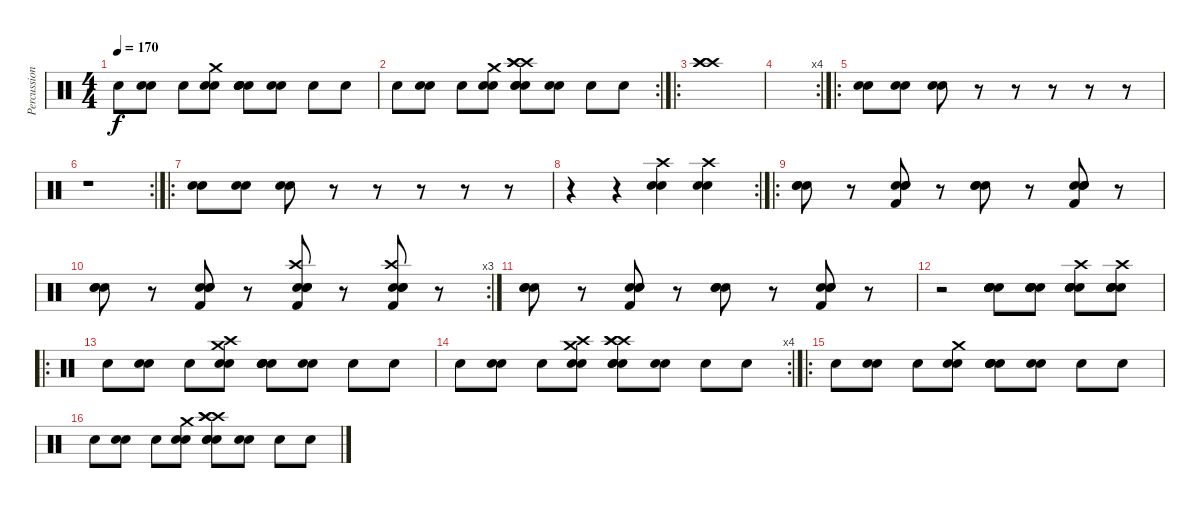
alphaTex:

\track ("Percussions" "Percussion") {instrument percussion}
\staff {score}
\articulation defaults
\ts (4 4)
\tempo 170
\clef neutral
\ks c "Snare (hit) 2".8{dy f}
("Electric Snare (hit)" "Snare (hit) 2").8 "Snare (hit) 2".8 ("Electric Snare (hit)" "Snare (hit) 2" "Crash medium (hit)").8 ("Electric Snare (hit)" "Electric Snare (hit)" "Electric Snare (hit)" "Snare (hit) 2").8 ("Electric Snare (hit)" "Snare (hit) 2").8 "Snare (hit) 2".8 "Snare (hit) 2".8 |
\rc 2 "Snare (hit) 2".8
("Electric Snare (hit)" "Snare (hit) 2").8 "Snare (hit) 2".8 ("Electric Snare (hit)" "Snare (hit) 2" "Crash medium (hit)").8 ("Electric Snare (hit)" "Electric Snare (hit)" "Crash high (hit)" "Snare (hit) 2" "Crash high (hit)" "Crash high (hit)").8 ("Electric Snare (hit)" "Snare (hit) 2").8 "Snare (hit) 2".8 "Snare (hit) 2".8 |
\ro
("Crash high (hit)" "Crash high (hit)" "Crash high (hit)").1 |
\rc 4
|
\ro
("Snare (hit) 2" "Electric Snare (hit)").8 ("Snare (hit) 2" "Electric Snare (hit)").8 ("Snare (hit) 2" "Electric Snare (hit)").8 r.8 r.8 r.8 r.8 r.8 |
\rc 2
r.1 |
\ro
("Snare (hit) 2" "Electric Snare (hit)").8 ("Snare (hit) 2" "Electric Snare (hit)").8 ("Snare (hit) 2" "Electric Snare (hit)").8 r.8 r.8 r.8 r.8 r.8 |
\rc 2
r.4 r.4 ("Crash high (hit)" "Electric Snare (hit)" "Electric Snare (hit)").4 ("Crash high (hit)" "Electric Snare (hit)" "Electric Snare (hit)").4 |
\ro
("Snare (hit) 2" "Electric Snare (hit)" "Snare (hit) 2").8 r.8 ("Snare (hit) 2" "Electric Snare (hit)" "Kick (hit) 2" "Snare (hit) 2").8 r.8 ("Snare (hit) 2" "Electric Snare (hit)" "Snare (hit) 2").8 r.8 ("Snare (hit) 2" "Electric Snare (hit)" "Kick (hit) 2" "Snare (hit) 2").8 r.8 |
\rc 3
("Snare (hit) 2" "Electric Snare (hit)" "Snare (hit) 2").8 r.8 ("Snare (hit) 2" "Electric Snare (hit)" "Kick (hit) 2" "Snare (hit) 2").8 r.8 ("Snare (hit) 2" "Electric Snare (hit)" "Crash high (hit)" "Kick (hit) 2" "Snare (hit) 2").8 r.8 ("Snare (hit) 2" "Electric Snare (hit)" "Crash high (hit)" "Kick (hit) 2" "Snare (hit) 2").8 r.8 |
("Snare (hit) 2" "Electric Snare (hit)" "Snare (hit) 2").8 r.8 ("Snare (hit) 2" "Electric Snare (hit)" "Kick (hit) 2" "Snare (hit) 2").8 r.8 ("Snare (hit) 2" "Electric Snare (hit)" "Snare (hit) 2").8 r.8 ("Snare (hit) 2" "Electric Snare (hit)" "Kick (hit) 2" "Snare (hit) 2").8 r.8 |
r.2 ("Snare (hit) 2" "Snare (hit) 2" "Snare (hit) 2" "Snare (hit) 2" "Electric Snare (hit)").8 ("Snare (hit) 2" "Snare (hit) 2" "Snare (hit) 2" "Snare (hit) 2" "Electric Snare (hit)").8 ("Snare (hit) 2" "Snare (hit) 2" "Crash high (hit)" "Snare (hit) 2" "Electric Snare (hit)").8 ("Snare (hit) 2" "Snare (hit) 2" "Crash high (hit)" "Snare (hit) 2" "Electric Snare (hit)").8 |
\ro "Snare (hit) 2".8
("Electric Snare (hit)" "Snare (hit) 2").8 "Snare (hit) 2".8 ("Electric Snare (hit)" "Snare (hit) 2" "Crash high (hit)" "Crash medium (hit)").8 ("Electric Snare (hit)" "Electric Snare (hit)" "Electric Snare (hit)" "Snare (hit) 2").8 ("Electric Snare (hit)" "Snare (hit) 2").8 "Snare (hit) 2".8 "Snare (hit) 2".8 |
\rc 4 "Snare (hit) 2".8
("Electric Snare (hit)" "Snare (hit) 2").8 "Snare (hit) 2".8 ("Electric Snare (hit)" "Snare (hit) 2" "Crash high (hit)" "Crash medium (hit)").8 ("Electric Snare (hit)" "Electric Snare (hit)" "Crash high (hit)" "Snare (hit) 2" "Crash high (hit)" "Crash high (hit)").8 ("Electric Snare (hit)" "Snare (hit) 2").8 "Snare (hit) 2".8 "Snare (hit) 2".8 |
\ro "Snare (hit) 2".8
("Electric Snare (hit)" "Snare (hit) 2").8 "Snare (hit) 2".8 ("Electric Snare (hit)" "Snare (hit) 2" "Crash medium (hit)").8 ("Electric Snare (hit)" "Electric Snare (hit)" "Electric Snare (hit)" "Snare (hit) 2").8 ("Electric Snare (hit)" "Snare (hit) 2").8 "Snare (hit) 2".8 "Snare (hit) 2".8 |
"Snare (hit) 2".8 ("Electric Snare (hit)" "Snare (hit) 2").8 "Snare (hit) 2".8 ("Electric Snare (hit)" "Snare (hit) 2" "Crash medium (hit)").8 ("Electric Snare (hit)" "Electric Snare (hit)" "Crash high (hit)" "Snare (hit) 2" "Crash high (hit)" "Crash high (hit)").8 ("Electric Snare (hit)" "Snare (hit) 2").8 "Snare (hit) 2".8 "Snare (hit) 2".8
